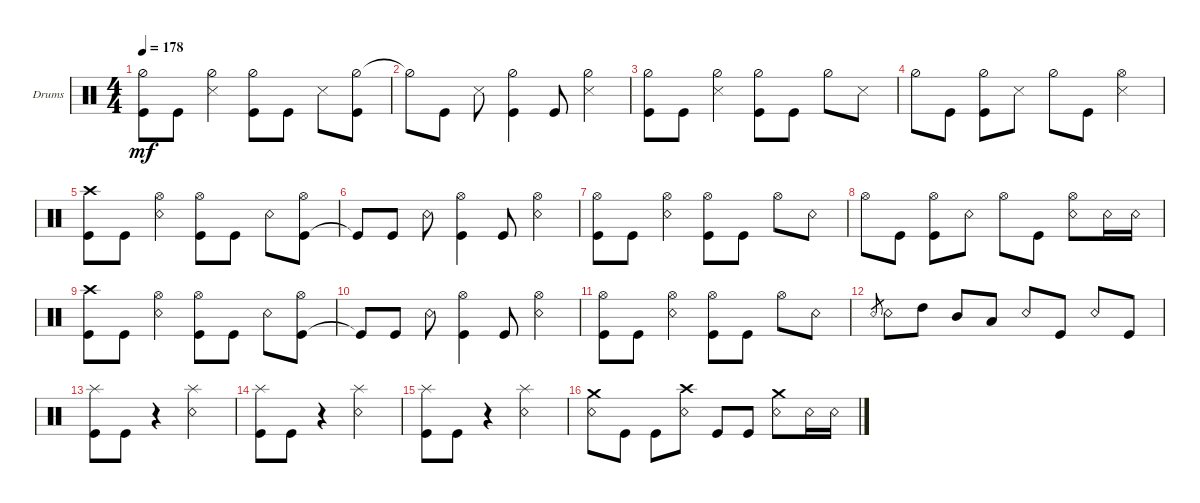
\defaultSystemsLayout 4
\bracketExtendMode groupsimilarinstruments
\firstSystemTrackNameOrientation horizontal
\otherSystemsTrackNameOrientation horizontal
\track ("Drumkit" "Drums") {instrument percussion}
\staff {score}
\articulation defaults
\ts (4 4)
\tempo 178
\clef neutral
\ks c
("Hi-Hat (half)" "Kick (hit)").8{dy mf} "Kick (hit)".8 ("Hi-Hat (half)" "Snare (side stick) 3").4 ("Hi-Hat (half)" "Kick (hit)").8 "Kick (hit)".8 "Snare (side stick) 3".8 ("Hi-Hat (half)" "Kick (hit)").8 |
"Hi-Hat (half)"{t}.8 "Kick (hit)".8 "Snare (side stick) 3".8 ("Hi-Hat (half)" "Kick (hit)").4 "Kick (hit)".8 ("Snare (side stick) 3" "Hi-Hat (half)").4 |
("Hi-Hat (half)" "Kick (hit)").8 "Kick (hit)".8 ("Hi-Hat (half)" "Snare (side stick) 3").4 ("Hi-Hat (half)" "Kick (hit)").8 "Kick (hit)".8 "Hi-Hat (half)".8 "Snare (side stick) 3".8 |
"Hi-Hat (half)".8 "Kick (hit)".8 ("Hi-Hat (half)" "Kick (hit)").8 "Snare (side stick) 3".8 "Hi-Hat (half)".8 "Kick (hit)".8 ("Hi-Hat (open)" "Snare (side stick) 3").4 |
("Kick (hit)" "Crash high (hit)").8 "Kick (hit)".8 ("Snare (rim shot)" "Hi-Hat (open)").4 ("Kick (hit)" "Hi-Hat (open)").8 "Kick (hit)".8 "Snare (rim shot)".8 ("Kick (hit)" "Hi-Hat (open)").8 |
"Kick (hit)"{t}.8 "Kick (hit)".8 "Snare (rim shot)".8 ("Kick (hit)" "Hi-Hat (open)").4 "Kick (hit)".8 ("Snare (rim shot)" "Hi-Hat (open)").4 |
("Kick (hit)" "Hi-Hat (open)").8 "Kick (hit)".8 ("Hi-Hat (open)" "Snare (rim shot)").4 ("Kick (hit)" "Hi-Hat (open)").8 "Kick (hit)".8 "Hi-Hat (open)".8 "Snare (rim shot)".8 |
"Hi-Hat (open)".8 "Kick (hit)".8 ("Kick (hit)" "Hi-Hat (open)").8 "Snare (rim shot)".8 "Hi-Hat (open)".8 "Kick (hit)".8 ("Hi-Hat (open)" "Snare (rim shot)").8 "Snare (rim shot)".16 "Snare (rim shot)".16 |
("Kick (hit)" "Crash high (hit)").8 "Kick (hit)".8 ("Snare (rim shot)" "Hi-Hat (open)").4 ("Kick (hit)" "Hi-Hat (open)").8 "Kick (hit)".8 "Snare (rim shot)".8 ("Kick (hit)" "Hi-Hat (open)").8 |
"Kick (hit)"{t}.8 "Kick (hit)".8 "Snare (rim shot)".8 ("Kick (hit)" "Hi-Hat (open)").4 "Kick (hit)".8 ("Snare (rim shot)" "Hi-Hat (open)").4 |
("Kick (hit)" "Hi-Hat (open)").8 "Kick (hit)".8 ("Hi-Hat (open)" "Snare (rim shot)").4 ("Kick (hit)" "Hi-Hat (open)").8 "Kick (hit)".8 "Hi-Hat (open)".8 "Snare (rim shot)".8 |
"Snare (rim shot)".8{gr} "Snare (rim shot)".8 "High Tom (hit)".8 "Mid Tom (hit)".8 "Low Tom (hit)".8 "Snare (rim shot)".8 "Kick (hit)".8 "Snare (rim shot)".8 "Kick (hit)".8 |
("Kick (hit)" "Splash (hit)").8 "Kick (hit)".8 r.4 ("Splash (hit)" "Snare (rim shot)").2 |
("Kick (hit)" "Splash (hit)").8 "Kick (hit)".8 r.4 ("Splash (hit)" "Snare (rim shot)").2 |
("Kick (hit)" "Splash (hit)").8 "Kick (hit)".8 r.4 ("Splash (hit)" "Snare (rim shot)").2 |
("Snare (rim shot)" "Crash medium (hit)").8 "Kick (hit)".8 "Kick (hit)".8 ("Snare (rim shot)" "Crash high (hit)").8 "Kick (hit)".8 "Kick (hit)".8 ("Snare (rim shot)" "Crash medium (hit)").8 "Snare (rim shot)".16 "Snare (rim shot)".16
